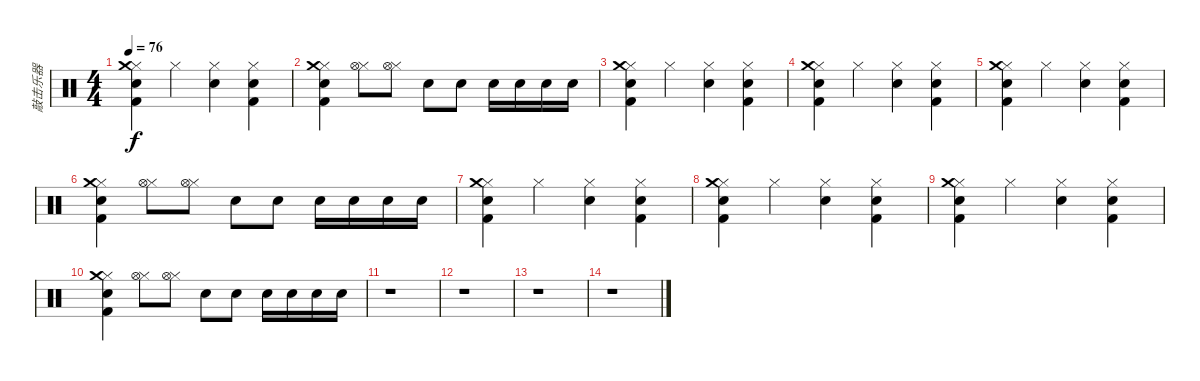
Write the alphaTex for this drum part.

\track ("敲击乐器" "敲击乐器") {instrument percussion}
\staff {score}
\articulation defaults
\ts (4 4)
\tempo 76
\clef neutral
\ks c
("Hi-Hat (closed)" "Snare (hit) 2" "Kick (hit) 2" "Crash medium (hit)").4{dy f} "Hi-Hat (closed)".4 ("Hi-Hat (closed)" "Hand Clap (hit)").4 ("Hi-Hat (closed)" "Snare (hit) 2" "Kick (hit) 2").4 |
("Hi-Hat (closed)" "Snare (hit) 2" "Kick (hit) 2" "Crash medium (hit)").4 ("Hi-Hat (closed)" "Hi-Hat (open)").8 ("Hi-Hat (closed)" "Hi-Hat (open)").8 "Electric Snare (hit)".8 "Electric Snare (hit)".8 "Snare (hit) 2".16 "Snare (hit) 2".16 "Snare (hit) 2".16 "Snare (hit) 2".16 |
("Hi-Hat (closed)" "Snare (hit) 2" "Kick (hit) 2" "Crash medium (hit)").4 "Hi-Hat (closed)".4 ("Hi-Hat (closed)" "Hand Clap (hit)").4 ("Hi-Hat (closed)" "Snare (hit) 2" "Kick (hit) 2").4 |
("Hi-Hat (closed)" "Snare (hit) 2" "Kick (hit) 2" "Crash medium (hit)").4 "Hi-Hat (closed)".4 ("Hi-Hat (closed)" "Hand Clap (hit)").4 ("Hi-Hat (closed)" "Snare (hit) 2" "Kick (hit) 2").4 |
("Hi-Hat (closed)" "Snare (hit) 2" "Kick (hit) 2" "Crash medium (hit)").4 "Hi-Hat (closed)".4 ("Hi-Hat (closed)" "Hand Clap (hit)").4 ("Hi-Hat (closed)" "Snare (hit) 2" "Kick (hit) 2").4 |
("Hi-Hat (closed)" "Snare (hit) 2" "Kick (hit) 2" "Crash medium (hit)").4 ("Hi-Hat (closed)" "Hi-Hat (open)").8 ("Hi-Hat (closed)" "Hi-Hat (open)").8 "Electric Snare (hit)".8 "Electric Snare (hit)".8 "Snare (hit) 2".16 "Snare (hit) 2".16 "Snare (hit) 2".16 "Snare (hit) 2".16 |
("Hi-Hat (closed)" "Snare (hit) 2" "Kick (hit) 2" "Crash medium (hit)").4{volume 10} "Hi-Hat (closed)".4 ("Hi-Hat (closed)" "Hand Clap (hit)").4 ("Hi-Hat (closed)" "Snare (hit) 2" "Kick (hit) 2").4 |
("Hi-Hat (closed)" "Snare (hit) 2" "Kick (hit) 2" "Crash medium (hit)").4 "Hi-Hat (closed)".4 ("Hi-Hat (closed)" "Hand Clap (hit)").4 ("Hi-Hat (closed)" "Snare (hit) 2" "Kick (hit) 2").4 |
("Hi-Hat (closed)" "Snare (hit) 2" "Kick (hit) 2" "Crash medium (hit)").4 "Hi-Hat (closed)".4 ("Hi-Hat (closed)" "Hand Clap (hit)").4 ("Hi-Hat (closed)" "Snare (hit) 2" "Kick (hit) 2").4 |
("Hi-Hat (closed)" "Snare (hit) 2" "Kick (hit) 2" "Crash medium (hit)").4 ("Hi-Hat (closed)" "Hi-Hat (open)").8 ("Hi-Hat (closed)" "Hi-Hat (open)").8 "Electric Snare (hit)".8 "Electric Snare (hit)".8 "Snare (hit) 2".16 "Snare (hit) 2".16 "Snare (hit) 2".16 "Snare (hit) 2".16 |
r.1 |
r.1 |
r.1 |
r.1
